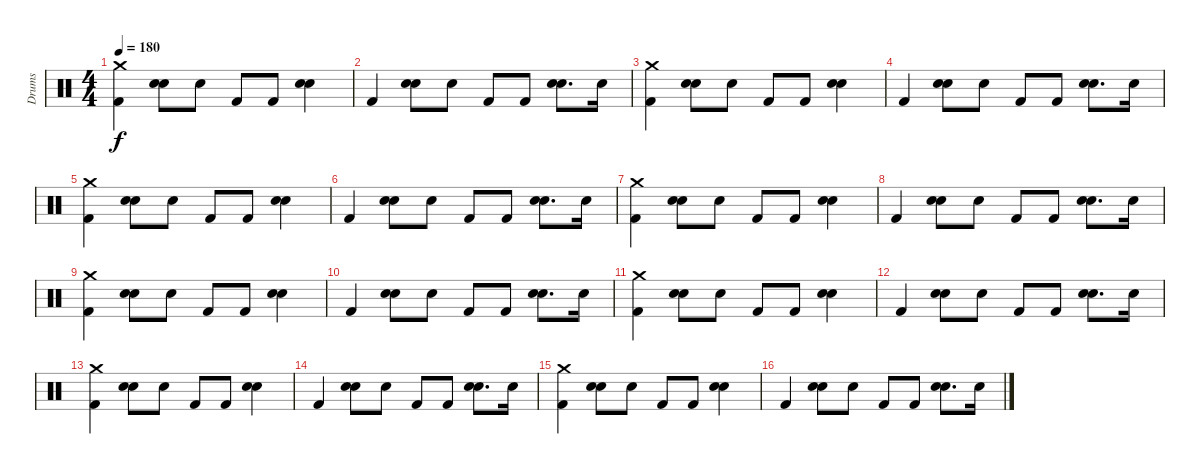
\track ("Drums" "Drums") {instrument percussion}
\staff {score}
\articulation defaults
\ts (4 4)
\tempo 180
\clef neutral
\ks c
("Kick (hit) 2" "Crash medium (hit)").4{dy f} ("Snare (hit) 2" "Hand Clap (hit)").8 "Hand Clap (hit)".8 "Kick (hit) 2".8 "Kick (hit) 2".8 ("Snare (hit) 2" "Hand Clap (hit)").4 |
"Kick (hit) 2".4 ("Snare (hit) 2" "Hand Clap (hit)").8 "Hand Clap (hit)".8 "Kick (hit) 2".8 "Kick (hit) 2".8 ("Snare (hit) 2" "Hand Clap (hit)").8{d} "Snare (hit) 2".16 |
("Kick (hit) 2" "Crash medium (hit)").4 ("Snare (hit) 2" "Hand Clap (hit)").8 "Hand Clap (hit)".8 "Kick (hit) 2".8 "Kick (hit) 2".8 ("Snare (hit) 2" "Hand Clap (hit)").4 |
"Kick (hit) 2".4 ("Snare (hit) 2" "Hand Clap (hit)").8 "Hand Clap (hit)".8 "Kick (hit) 2".8 "Kick (hit) 2".8 ("Snare (hit) 2" "Hand Clap (hit)").8{d} "Snare (hit) 2".16 |
("Kick (hit) 2" "Crash medium (hit)").4 ("Snare (hit) 2" "Hand Clap (hit)").8 "Hand Clap (hit)".8 "Kick (hit) 2".8 "Kick (hit) 2".8 ("Snare (hit) 2" "Hand Clap (hit)").4 |
"Kick (hit) 2".4 ("Snare (hit) 2" "Hand Clap (hit)").8 "Hand Clap (hit)".8 "Kick (hit) 2".8 "Kick (hit) 2".8 ("Snare (hit) 2" "Hand Clap (hit)").8{d} "Snare (hit) 2".16 |
("Kick (hit) 2" "Crash medium (hit)").4 ("Snare (hit) 2" "Hand Clap (hit)").8 "Hand Clap (hit)".8 "Kick (hit) 2".8 "Kick (hit) 2".8 ("Snare (hit) 2" "Hand Clap (hit)").4 |
"Kick (hit) 2".4 ("Snare (hit) 2" "Hand Clap (hit)").8 "Hand Clap (hit)".8 "Kick (hit) 2".8 "Kick (hit) 2".8 ("Snare (hit) 2" "Hand Clap (hit)").8{d} "Snare (hit) 2".16 |
("Kick (hit) 2" "Crash medium (hit)").4 ("Snare (hit) 2" "Hand Clap (hit)").8 "Hand Clap (hit)".8 "Kick (hit) 2".8 "Kick (hit) 2".8 ("Snare (hit) 2" "Hand Clap (hit)").4 |
"Kick (hit) 2".4 ("Snare (hit) 2" "Hand Clap (hit)").8 "Hand Clap (hit)".8 "Kick (hit) 2".8 "Kick (hit) 2".8 ("Snare (hit) 2" "Hand Clap (hit)").8{d} "Snare (hit) 2".16 |
("Kick (hit) 2" "Crash medium (hit)").4 ("Snare (hit) 2" "Hand Clap (hit)").8 "Hand Clap (hit)".8 "Kick (hit) 2".8 "Kick (hit) 2".8 ("Snare (hit) 2" "Hand Clap (hit)").4 |
"Kick (hit) 2".4 ("Snare (hit) 2" "Hand Clap (hit)").8 "Hand Clap (hit)".8 "Kick (hit) 2".8 "Kick (hit) 2".8 ("Snare (hit) 2" "Hand Clap (hit)").8{d} "Snare (hit) 2".16 |
("Kick (hit) 2" "Crash medium (hit)").4 ("Snare (hit) 2" "Hand Clap (hit)").8 "Hand Clap (hit)".8 "Kick (hit) 2".8 "Kick (hit) 2".8 ("Snare (hit) 2" "Hand Clap (hit)").4 |
"Kick (hit) 2".4 ("Snare (hit) 2" "Hand Clap (hit)").8 "Hand Clap (hit)".8 "Kick (hit) 2".8 "Kick (hit) 2".8 ("Snare (hit) 2" "Hand Clap (hit)").8{d} "Snare (hit) 2".16 |
("Kick (hit) 2" "Crash medium (hit)").4 ("Snare (hit) 2" "Hand Clap (hit)").8 "Hand Clap (hit)".8 "Kick (hit) 2".8 "Kick (hit) 2".8 ("Snare (hit) 2" "Hand Clap (hit)").4 |
"Kick (hit) 2".4 ("Snare (hit) 2" "Hand Clap (hit)").8 "Hand Clap (hit)".8 "Kick (hit) 2".8 "Kick (hit) 2".8 ("Snare (hit) 2" "Hand Clap (hit)").8{d} "Snare (hit) 2".16
